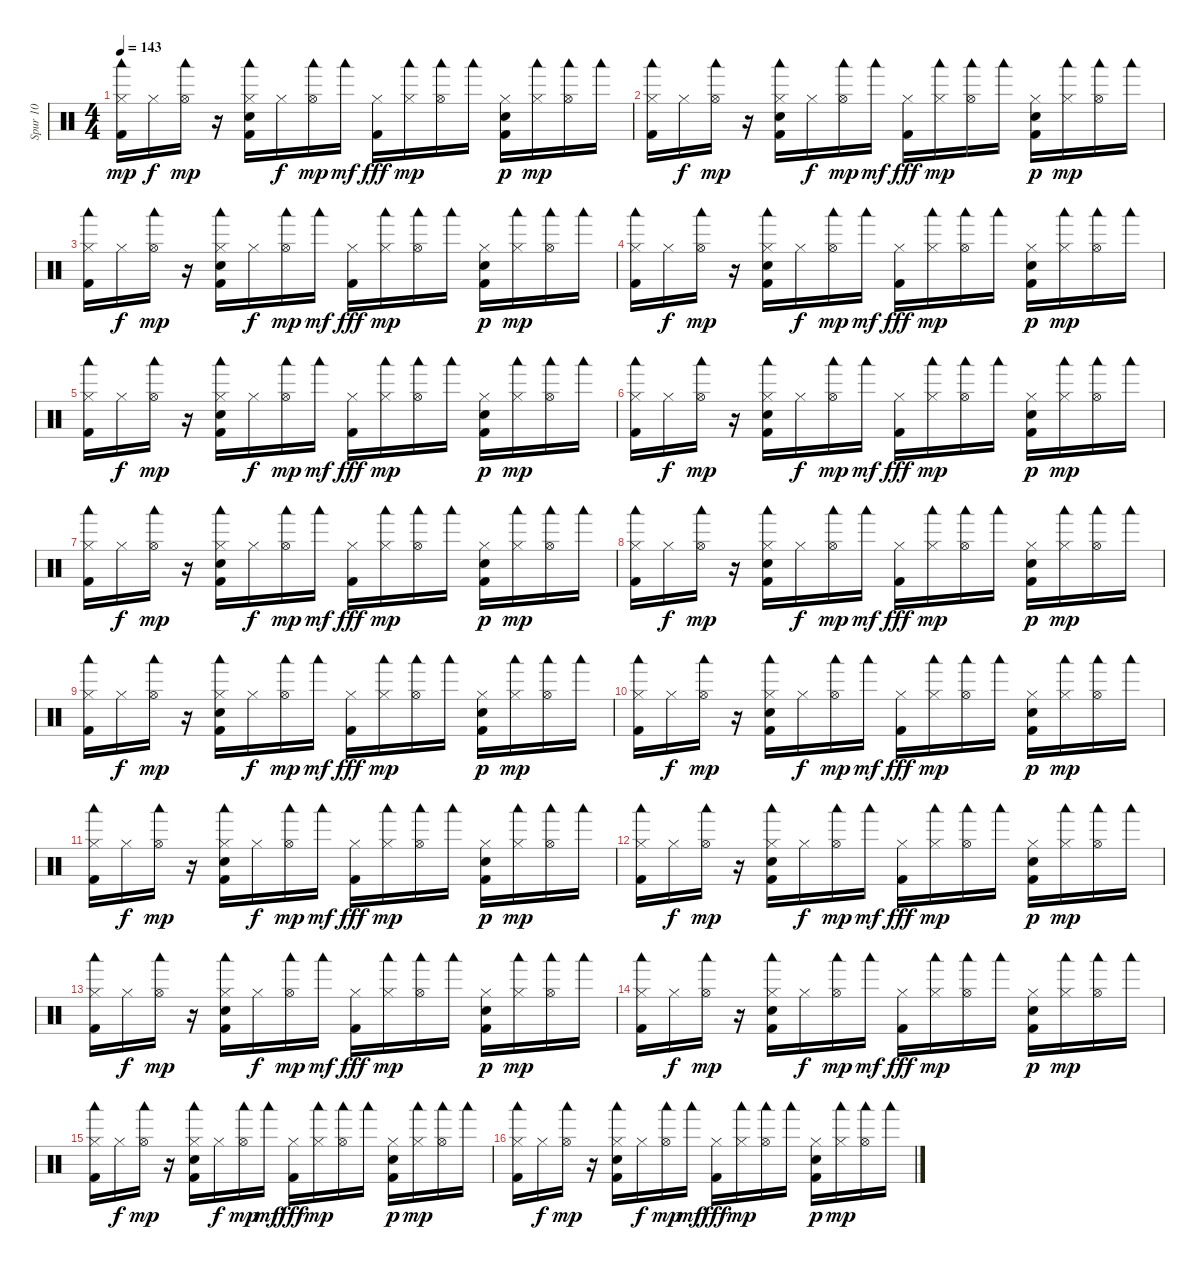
\track ("Spur 10" "Spur 10") {instrument percussion}
\staff {score}
\articulation defaults
\ts (4 4)
\tempo 143
\clef neutral
\ks c
("Hi-Hat (closed)" "Kick (hit) 2" "Woodblock low (hit)").16{dy mp} "Hi-Hat (closed)".16{dy f} ("Hi-Hat (open)" "Woodblock low (hit)").16{dy mp} r.16 ("Hi-Hat (closed)" "Kick (hit) 2" "Electric Snare (hit)" "Woodblock low (hit)").16 "Hi-Hat (closed)".16{dy f} ("Hi-Hat (open)" "Woodblock low (hit)").16{dy mp} "Woodblock low (hit)".16{dy mf} ("Hi-Hat (closed)" "Kick (hit) 2").16{dy fff} ("Hi-Hat (closed)" "Woodblock low (hit)").16{dy mp} ("Hi-Hat (open)" "Woodblock low (hit)").16 "Woodblock low (hit)".16 ("Hi-Hat (closed)" "Kick (hit) 2" "Electric Snare (hit)").16{dy p} ("Hi-Hat (closed)" "Woodblock low (hit)").16{dy mp} ("Hi-Hat (open)" "Woodblock low (hit)").16 "Woodblock low (hit)".16 |
("Kick (hit) 2" "Hi-Hat (closed)" "Woodblock low (hit)").16 "Hi-Hat (closed)".16{dy f} ("Hi-Hat (open)" "Woodblock low (hit)").16{dy mp} r.16 ("Kick (hit) 2" "Hi-Hat (closed)" "Electric Snare (hit)" "Woodblock low (hit)").16 "Hi-Hat (closed)".16{dy f} ("Hi-Hat (open)" "Woodblock low (hit)").16{dy mp} "Woodblock low (hit)".16{dy mf} ("Kick (hit) 2" "Hi-Hat (closed)").16{dy fff} ("Hi-Hat (closed)" "Woodblock low (hit)").16{dy mp} ("Hi-Hat (open)" "Woodblock low (hit)").16 "Woodblock low (hit)".16 ("Kick (hit) 2" "Hi-Hat (closed)" "Electric Snare (hit)").16{dy p} ("Hi-Hat (closed)" "Woodblock low (hit)").16{dy mp} ("Hi-Hat (open)" "Woodblock low (hit)").16 "Woodblock low (hit)".16 |
("Kick (hit) 2" "Hi-Hat (closed)" "Woodblock low (hit)").16 "Hi-Hat (closed)".16{dy f} ("Hi-Hat (open)" "Woodblock low (hit)").16{dy mp} r.16 ("Kick (hit) 2" "Hi-Hat (closed)" "Electric Snare (hit)" "Woodblock low (hit)").16 "Hi-Hat (closed)".16{dy f} ("Hi-Hat (open)" "Woodblock low (hit)").16{dy mp} "Woodblock low (hit)".16{dy mf} ("Kick (hit) 2" "Hi-Hat (closed)").16{dy fff} ("Hi-Hat (closed)" "Woodblock low (hit)").16{dy mp} ("Hi-Hat (open)" "Woodblock low (hit)").16 "Woodblock low (hit)".16 ("Kick (hit) 2" "Hi-Hat (closed)" "Electric Snare (hit)").16{dy p} ("Hi-Hat (closed)" "Woodblock low (hit)").16{dy mp} ("Hi-Hat (open)" "Woodblock low (hit)").16 "Woodblock low (hit)".16 |
("Kick (hit) 2" "Hi-Hat (closed)" "Woodblock low (hit)").16 "Hi-Hat (closed)".16{dy f} ("Hi-Hat (open)" "Woodblock low (hit)").16{dy mp} r.16 ("Kick (hit) 2" "Hi-Hat (closed)" "Electric Snare (hit)" "Woodblock low (hit)").16 "Hi-Hat (closed)".16{dy f} ("Hi-Hat (open)" "Woodblock low (hit)").16{dy mp} "Woodblock low (hit)".16{dy mf} ("Kick (hit) 2" "Hi-Hat (closed)").16{dy fff} ("Hi-Hat (closed)" "Woodblock low (hit)").16{dy mp} ("Hi-Hat (open)" "Woodblock low (hit)").16 "Woodblock low (hit)".16 ("Kick (hit) 2" "Hi-Hat (closed)" "Electric Snare (hit)").16{dy p} ("Hi-Hat (closed)" "Woodblock low (hit)").16{dy mp} ("Hi-Hat (open)" "Woodblock low (hit)").16 "Woodblock low (hit)".16 |
("Hi-Hat (closed)" "Kick (hit) 2" "Woodblock low (hit)").16 "Hi-Hat (closed)".16{dy f} ("Hi-Hat (open)" "Woodblock low (hit)").16{dy mp} r.16 ("Hi-Hat (closed)" "Kick (hit) 2" "Electric Snare (hit)" "Woodblock low (hit)").16 "Hi-Hat (closed)".16{dy f} ("Hi-Hat (open)" "Woodblock low (hit)").16{dy mp} "Woodblock low (hit)".16{dy mf} ("Hi-Hat (closed)" "Kick (hit) 2").16{dy fff} ("Hi-Hat (closed)" "Woodblock low (hit)").16{dy mp} ("Hi-Hat (open)" "Woodblock low (hit)").16 "Woodblock low (hit)".16 ("Hi-Hat (closed)" "Kick (hit) 2" "Electric Snare (hit)").16{dy p} ("Hi-Hat (closed)" "Woodblock low (hit)").16{dy mp} ("Hi-Hat (open)" "Woodblock low (hit)").16 "Woodblock low (hit)".16 |
("Kick (hit) 2" "Hi-Hat (closed)" "Woodblock low (hit)").16 "Hi-Hat (closed)".16{dy f} ("Hi-Hat (open)" "Woodblock low (hit)").16{dy mp} r.16 ("Kick (hit) 2" "Hi-Hat (closed)" "Electric Snare (hit)" "Woodblock low (hit)").16 "Hi-Hat (closed)".16{dy f} ("Hi-Hat (open)" "Woodblock low (hit)").16{dy mp} "Woodblock low (hit)".16{dy mf} ("Kick (hit) 2" "Hi-Hat (closed)").16{dy fff} ("Hi-Hat (closed)" "Woodblock low (hit)").16{dy mp} ("Hi-Hat (open)" "Woodblock low (hit)").16 "Woodblock low (hit)".16 ("Kick (hit) 2" "Hi-Hat (closed)" "Electric Snare (hit)").16{dy p} ("Hi-Hat (closed)" "Woodblock low (hit)").16{dy mp} ("Hi-Hat (open)" "Woodblock low (hit)").16 "Woodblock low (hit)".16 |
("Hi-Hat (closed)" "Kick (hit) 2" "Woodblock low (hit)").16 "Hi-Hat (closed)".16{dy f} ("Hi-Hat (open)" "Woodblock low (hit)").16{dy mp} r.16 ("Hi-Hat (closed)" "Kick (hit) 2" "Electric Snare (hit)" "Woodblock low (hit)").16 "Hi-Hat (closed)".16{dy f} ("Hi-Hat (open)" "Woodblock low (hit)").16{dy mp} "Woodblock low (hit)".16{dy mf} ("Hi-Hat (closed)" "Kick (hit) 2").16{dy fff} ("Hi-Hat (closed)" "Woodblock low (hit)").16{dy mp} ("Hi-Hat (open)" "Woodblock low (hit)").16 "Woodblock low (hit)".16 ("Hi-Hat (closed)" "Kick (hit) 2" "Electric Snare (hit)").16{dy p} ("Hi-Hat (closed)" "Woodblock low (hit)").16{dy mp} ("Hi-Hat (open)" "Woodblock low (hit)").16 "Woodblock low (hit)".16 |
("Kick (hit) 2" "Hi-Hat (closed)" "Woodblock low (hit)").16 "Hi-Hat (closed)".16{dy f} ("Hi-Hat (open)" "Woodblock low (hit)").16{dy mp} r.16 ("Kick (hit) 2" "Hi-Hat (closed)" "Electric Snare (hit)" "Woodblock low (hit)").16 "Hi-Hat (closed)".16{dy f} ("Hi-Hat (open)" "Woodblock low (hit)").16{dy mp} "Woodblock low (hit)".16{dy mf} ("Kick (hit) 2" "Hi-Hat (closed)").16{dy fff} ("Hi-Hat (closed)" "Woodblock low (hit)").16{dy mp} ("Hi-Hat (open)" "Woodblock low (hit)").16 "Woodblock low (hit)".16 ("Kick (hit) 2" "Hi-Hat (closed)" "Electric Snare (hit)").16{dy p} ("Hi-Hat (closed)" "Woodblock low (hit)").16{dy mp} ("Hi-Hat (open)" "Woodblock low (hit)").16 "Woodblock low (hit)".16 |
("Hi-Hat (closed)" "Kick (hit) 2" "Woodblock low (hit)").16 "Hi-Hat (closed)".16{dy f} ("Hi-Hat (open)" "Woodblock low (hit)").16{dy mp} r.16 ("Hi-Hat (closed)" "Kick (hit) 2" "Electric Snare (hit)" "Woodblock low (hit)").16 "Hi-Hat (closed)".16{dy f} ("Hi-Hat (open)" "Woodblock low (hit)").16{dy mp} "Woodblock low (hit)".16{dy mf} ("Hi-Hat (closed)" "Kick (hit) 2").16{dy fff} ("Hi-Hat (closed)" "Woodblock low (hit)").16{dy mp} ("Hi-Hat (open)" "Woodblock low (hit)").16 "Woodblock low (hit)".16 ("Hi-Hat (closed)" "Kick (hit) 2" "Electric Snare (hit)").16{dy p} ("Hi-Hat (closed)" "Woodblock low (hit)").16{dy mp} ("Hi-Hat (open)" "Woodblock low (hit)").16 "Woodblock low (hit)".16 |
("Hi-Hat (closed)" "Kick (hit) 2" "Woodblock low (hit)").16 "Hi-Hat (closed)".16{dy f} ("Hi-Hat (open)" "Woodblock low (hit)").16{dy mp} r.16 ("Hi-Hat (closed)" "Kick (hit) 2" "Electric Snare (hit)" "Woodblock low (hit)").16 "Hi-Hat (closed)".16{dy f} ("Hi-Hat (open)" "Woodblock low (hit)").16{dy mp} "Woodblock low (hit)".16{dy mf} ("Hi-Hat (closed)" "Kick (hit) 2").16{dy fff} ("Hi-Hat (closed)" "Woodblock low (hit)").16{dy mp} ("Hi-Hat (open)" "Woodblock low (hit)").16 "Woodblock low (hit)".16 ("Hi-Hat (closed)" "Kick (hit) 2" "Electric Snare (hit)").16{dy p} ("Hi-Hat (closed)" "Woodblock low (hit)").16{dy mp} ("Hi-Hat (open)" "Woodblock low (hit)").16 "Woodblock low (hit)".16 |
("Hi-Hat (closed)" "Kick (hit) 2" "Woodblock low (hit)").16 "Hi-Hat (closed)".16{dy f} ("Hi-Hat (open)" "Woodblock low (hit)").16{dy mp} r.16 ("Hi-Hat (closed)" "Kick (hit) 2" "Electric Snare (hit)" "Woodblock low (hit)").16 "Hi-Hat (closed)".16{dy f} ("Hi-Hat (open)" "Woodblock low (hit)").16{dy mp} "Woodblock low (hit)".16{dy mf} ("Hi-Hat (closed)" "Kick (hit) 2").16{dy fff} ("Hi-Hat (closed)" "Woodblock low (hit)").16{dy mp} ("Hi-Hat (open)" "Woodblock low (hit)").16 "Woodblock low (hit)".16 ("Hi-Hat (closed)" "Kick (hit) 2" "Electric Snare (hit)").16{dy p} ("Hi-Hat (closed)" "Woodblock low (hit)").16{dy mp} ("Hi-Hat (open)" "Woodblock low (hit)").16 "Woodblock low (hit)".16 |
("Kick (hit) 2" "Hi-Hat (closed)" "Woodblock low (hit)").16 "Hi-Hat (closed)".16{dy f} ("Hi-Hat (open)" "Woodblock low (hit)").16{dy mp} r.16 ("Kick (hit) 2" "Hi-Hat (closed)" "Electric Snare (hit)" "Woodblock low (hit)").16 "Hi-Hat (closed)".16{dy f} ("Hi-Hat (open)" "Woodblock low (hit)").16{dy mp} "Woodblock low (hit)".16{dy mf} ("Kick (hit) 2" "Hi-Hat (closed)").16{dy fff} ("Hi-Hat (closed)" "Woodblock low (hit)").16{dy mp} ("Hi-Hat (open)" "Woodblock low (hit)").16 "Woodblock low (hit)".16 ("Kick (hit) 2" "Hi-Hat (closed)" "Electric Snare (hit)").16{dy p} ("Hi-Hat (closed)" "Woodblock low (hit)").16{dy mp} ("Hi-Hat (open)" "Woodblock low (hit)").16 "Woodblock low (hit)".16 |
("Kick (hit) 2" "Hi-Hat (closed)" "Woodblock low (hit)").16 "Hi-Hat (closed)".16{dy f} ("Hi-Hat (open)" "Woodblock low (hit)").16{dy mp} r.16 ("Kick (hit) 2" "Hi-Hat (closed)" "Electric Snare (hit)" "Woodblock low (hit)").16 "Hi-Hat (closed)".16{dy f} ("Hi-Hat (open)" "Woodblock low (hit)").16{dy mp} "Woodblock low (hit)".16{dy mf} ("Kick (hit) 2" "Hi-Hat (closed)").16{dy fff} ("Hi-Hat (closed)" "Woodblock low (hit)").16{dy mp} ("Hi-Hat (open)" "Woodblock low (hit)").16 "Woodblock low (hit)".16 ("Kick (hit) 2" "Hi-Hat (closed)" "Electric Snare (hit)").16{dy p} ("Hi-Hat (closed)" "Woodblock low (hit)").16{dy mp} ("Hi-Hat (open)" "Woodblock low (hit)").16 "Woodblock low (hit)".16 |
("Hi-Hat (closed)" "Kick (hit) 2" "Woodblock low (hit)").16 "Hi-Hat (closed)".16{dy f} ("Hi-Hat (open)" "Woodblock low (hit)").16{dy mp} r.16 ("Hi-Hat (closed)" "Kick (hit) 2" "Electric Snare (hit)" "Woodblock low (hit)").16 "Hi-Hat (closed)".16{dy f} ("Hi-Hat (open)" "Woodblock low (hit)").16{dy mp} "Woodblock low (hit)".16{dy mf} ("Hi-Hat (closed)" "Kick (hit) 2").16{dy fff} ("Hi-Hat (closed)" "Woodblock low (hit)").16{dy mp} ("Hi-Hat (open)" "Woodblock low (hit)").16 "Woodblock low (hit)".16 ("Hi-Hat (closed)" "Kick (hit) 2" "Electric Snare (hit)").16{dy p} ("Hi-Hat (closed)" "Woodblock low (hit)").16{dy mp} ("Hi-Hat (open)" "Woodblock low (hit)").16 "Woodblock low (hit)".16 |
("Hi-Hat (closed)" "Kick (hit) 2" "Woodblock low (hit)").16 "Hi-Hat (closed)".16{dy f} ("Hi-Hat (open)" "Woodblock low (hit)").16{dy mp} r.16 ("Hi-Hat (closed)" "Kick (hit) 2" "Electric Snare (hit)" "Woodblock low (hit)").16 "Hi-Hat (closed)".16{dy f} ("Hi-Hat (open)" "Woodblock low (hit)").16{dy mp} "Woodblock low (hit)".16{dy mf} ("Hi-Hat (closed)" "Kick (hit) 2").16{dy fff} ("Hi-Hat (closed)" "Woodblock low (hit)").16{dy mp} ("Hi-Hat (open)" "Woodblock low (hit)").16 "Woodblock low (hit)".16 ("Hi-Hat (closed)" "Kick (hit) 2" "Electric Snare (hit)").16{dy p} ("Hi-Hat (closed)" "Woodblock low (hit)").16{dy mp} ("Hi-Hat (open)" "Woodblock low (hit)").16 "Woodblock low (hit)".16 |
("Hi-Hat (closed)" "Kick (hit) 2" "Woodblock low (hit)").16 "Hi-Hat (closed)".16{dy f} ("Hi-Hat (open)" "Woodblock low (hit)").16{dy mp} r.16 ("Hi-Hat (closed)" "Kick (hit) 2" "Electric Snare (hit)" "Woodblock low (hit)").16 "Hi-Hat (closed)".16{dy f} ("Hi-Hat (open)" "Woodblock low (hit)").16{dy mp} "Woodblock low (hit)".16{dy mf} ("Hi-Hat (closed)" "Kick (hit) 2").16{dy fff} ("Hi-Hat (closed)" "Woodblock low (hit)").16{dy mp} ("Hi-Hat (open)" "Woodblock low (hit)").16 "Woodblock low (hit)".16 ("Hi-Hat (closed)" "Kick (hit) 2" "Electric Snare (hit)").16{dy p} ("Hi-Hat (closed)" "Woodblock low (hit)").16{dy mp} ("Hi-Hat (open)" "Woodblock low (hit)").16 "Woodblock low (hit)".16
